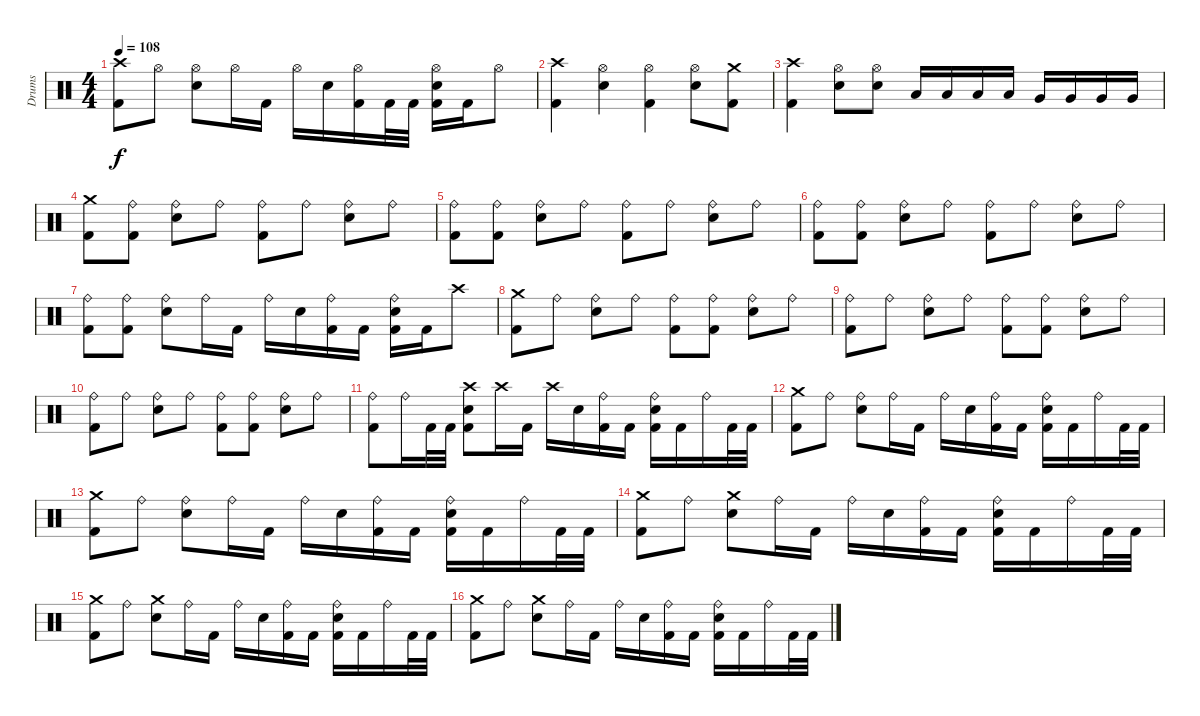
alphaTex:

\track ("Drums" "Drums") {instrument percussion}
\staff {score}
\articulation defaults
\ts (4 4)
\tempo 108
\clef neutral
\ks c
("Crash high (hit)" "Kick (hit) 2").8{dy f} "Hi-Hat (open)".8 ("Hi-Hat (open)" "Electric Snare (hit)").8 "Hi-Hat (open)".16 "Kick (hit) 2".16 "Hi-Hat (open)".16 "Electric Snare (hit)".16 ("Hi-Hat (open)" "Kick (hit) 2").16 "Kick (hit) 2".32 "Kick (hit) 2".32 ("Hi-Hat (open)" "Electric Snare (hit)" "Kick (hit) 2").16 "Kick (hit) 2".16 "Hi-Hat (open)".8 |
("Crash high (hit)" "Kick (hit) 2").4 ("Hi-Hat (open)" "Electric Snare (hit)").4 ("Hi-Hat (open)" "Kick (hit) 2").4 ("Hi-Hat (open)" "Electric Snare (hit)").8 ("Crash medium (hit)" "Kick (hit) 2").8 |
("Crash high (hit)" "Kick (hit) 2").4 ("Hi-Hat (open)" "Electric Snare (hit)").8 ("Hi-Hat (open)" "Electric Snare (hit)").8 "Low Floor Tom (hit)".16 "Low Floor Tom (hit)".16 "Low Floor Tom (hit)".16 "Low Floor Tom (hit)".16 "Very Low Tom (hit)".16 "Very Low Tom (hit)".16 "Very Low Tom (hit)".16 "Very Low Tom (hit)".16 |
("Crash medium (hit)" "Kick (hit) 2").8 ("Ride (bell)" "Kick (hit) 2").8 ("Ride (bell)" "Electric Snare (hit)").8 "Ride (bell)".8 ("Ride (bell)" "Kick (hit) 2").8 "Ride (bell)".8 ("Ride (bell)" "Electric Snare (hit)").8 "Ride (bell)".8 |
("Ride (bell)" "Kick (hit) 2").8 ("Ride (bell)" "Kick (hit) 2").8 ("Ride (bell)" "Electric Snare (hit)").8 "Ride (bell)".8 ("Ride (bell)" "Kick (hit) 2").8 "Ride (bell)".8 ("Ride (bell)" "Electric Snare (hit)").8 "Ride (bell)".8 |
("Ride (bell)" "Kick (hit) 2").8 ("Ride (bell)" "Kick (hit) 2").8 ("Ride (bell)" "Electric Snare (hit)").8 "Ride (bell)".8 ("Ride (bell)" "Kick (hit) 2").8 "Ride (bell)".8 ("Ride (bell)" "Electric Snare (hit)").8 "Ride (bell)".8 |
("Ride (bell)" "Kick (hit) 2").8 ("Ride (bell)" "Kick (hit) 2").8 ("Ride (bell)" "Electric Snare (hit)").8 "Ride (bell)".16 "Kick (hit) 2".16 "Ride (bell)".16 "Electric Snare (hit)".16 ("Ride (bell)" "Kick (hit) 2").16 "Kick (hit) 2".16 ("Ride (bell)" "Electric Snare (hit)" "Kick (hit) 2").16 "Kick (hit) 2".16 "Crash high (hit)".8 |
("Crash medium (hit)" "Kick (hit) 2").8 "Ride (bell)".8 ("Ride (bell)" "Electric Snare (hit)").8 "Ride (bell)".8 ("Ride (bell)" "Kick (hit) 2").8 ("Ride (bell)" "Kick (hit) 2").8 ("Ride (bell)" "Electric Snare (hit)").8 "Ride (bell)".8 |
("Ride (bell)" "Kick (hit) 2").8 "Ride (bell)".8 ("Ride (bell)" "Electric Snare (hit)").8 "Ride (bell)".8 ("Ride (bell)" "Kick (hit) 2").8 ("Ride (bell)" "Kick (hit) 2").8 ("Ride (bell)" "Electric Snare (hit)").8 "Ride (bell)".8 |
("Ride (bell)" "Kick (hit) 2").8 "Ride (bell)".8 ("Ride (bell)" "Electric Snare (hit)").8 "Ride (bell)".8 ("Ride (bell)" "Kick (hit) 2").8 ("Ride (bell)" "Kick (hit) 2").8 ("Ride (bell)" "Electric Snare (hit)").8 "Ride (bell)".8 |
("Ride (bell)" "Kick (hit) 2").8 "Ride (bell)".16 "Kick (hit) 2".32 "Kick (hit) 2".32 ("Crash high (hit)" "Electric Snare (hit)" "Kick (hit) 2").8 "Crash high (hit)".16 "Kick (hit) 2".16 "Crash high (hit)".16 "Electric Snare (hit)".16 ("Ride (bell)" "Kick (hit) 2").16 "Kick (hit) 2".16 ("Ride (bell)" "Electric Snare (hit)" "Kick (hit) 2").16 "Kick (hit) 2".16 "Ride (bell)".16 "Kick (hit) 2".32 "Kick (hit) 2".32 |
("Crash medium (hit)" "Kick (hit) 2").8 "Ride (bell)".8 ("Ride (bell)" "Electric Snare (hit)").8 "Ride (bell)".16 "Kick (hit) 2".16 "Ride (bell)".16 "Electric Snare (hit)".16 ("Ride (bell)" "Kick (hit) 2").16 "Kick (hit) 2".16 ("Ride (bell)" "Electric Snare (hit)" "Kick (hit) 2").16 "Kick (hit) 2".16 "Ride (bell)".16 "Kick (hit) 2".32 "Kick (hit) 2".32 |
("Crash medium (hit)" "Kick (hit) 2").8 "Ride (bell)".8 ("Ride (bell)" "Electric Snare (hit)").8 "Ride (bell)".16 "Kick (hit) 2".16 "Ride (bell)".16 "Electric Snare (hit)".16 ("Ride (bell)" "Kick (hit) 2").16 "Kick (hit) 2".16 ("Ride (bell)" "Electric Snare (hit)" "Kick (hit) 2").16 "Kick (hit) 2".16 "Ride (bell)".16 "Kick (hit) 2".32 "Kick (hit) 2".32 |
("Crash medium (hit)" "Kick (hit) 2").8 "Ride (bell)".8 ("Crash medium (hit)" "Electric Snare (hit)").8 "Ride (bell)".16 "Kick (hit) 2".16 "Ride (bell)".16 "Electric Snare (hit)".16 ("Ride (bell)" "Kick (hit) 2").16 "Kick (hit) 2".16 ("Ride (bell)" "Electric Snare (hit)" "Kick (hit) 2").16 "Kick (hit) 2".16 "Ride (bell)".16 "Kick (hit) 2".32 "Kick (hit) 2".32 |
("Crash medium (hit)" "Kick (hit) 2").8 "Ride (bell)".8 ("Crash medium (hit)" "Electric Snare (hit)").8 "Ride (bell)".16 "Kick (hit) 2".16 "Ride (bell)".16 "Electric Snare (hit)".16 ("Ride (bell)" "Kick (hit) 2").16 "Kick (hit) 2".16 ("Ride (bell)" "Electric Snare (hit)" "Kick (hit) 2").16 "Kick (hit) 2".16 "Ride (bell)".16 "Kick (hit) 2".32 "Kick (hit) 2".32 |
("Crash medium (hit)" "Kick (hit) 2").8 "Ride (bell)".8 ("Crash medium (hit)" "Electric Snare (hit)").8 "Ride (bell)".16 "Kick (hit) 2".16 "Ride (bell)".16 "Electric Snare (hit)".16 ("Ride (bell)" "Kick (hit) 2").16 "Kick (hit) 2".16 ("Ride (bell)" "Electric Snare (hit)" "Kick (hit) 2").16 "Kick (hit) 2".16 "Ride (bell)".16 "Kick (hit) 2".32 "Kick (hit) 2".32
